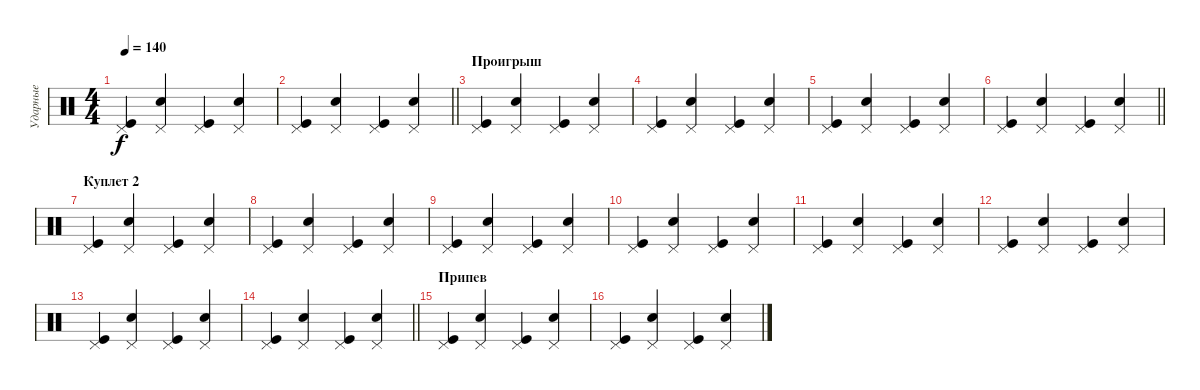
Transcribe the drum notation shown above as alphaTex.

\track ("Ударные" "Ударные") {instrument percussion}
\staff {score}
\articulation defaults
\ts (4 4)
\tempo 140
\clef neutral
\ks c
("Kick (hit)" "Pedal Hi-Hat (hit)").4{dy f} ("Electric Snare (hit)" "Pedal Hi-Hat (hit)").4 ("Kick (hit)" "Pedal Hi-Hat (hit)").4 ("Electric Snare (hit)" "Pedal Hi-Hat (hit)").4 |
\barLineRight lightlight
("Kick (hit)" "Pedal Hi-Hat (hit)").4 ("Electric Snare (hit)" "Pedal Hi-Hat (hit)").4 ("Kick (hit)" "Pedal Hi-Hat (hit)").4 ("Electric Snare (hit)" "Pedal Hi-Hat (hit)").4 |
\section ("" "Проигрыш")
("Kick (hit)" "Pedal Hi-Hat (hit)").4 ("Electric Snare (hit)" "Pedal Hi-Hat (hit)").4 ("Kick (hit)" "Pedal Hi-Hat (hit)").4 ("Electric Snare (hit)" "Pedal Hi-Hat (hit)").4 |
("Kick (hit)" "Pedal Hi-Hat (hit)").4 ("Electric Snare (hit)" "Pedal Hi-Hat (hit)").4 ("Kick (hit)" "Pedal Hi-Hat (hit)").4 ("Electric Snare (hit)" "Pedal Hi-Hat (hit)").4 |
("Kick (hit)" "Pedal Hi-Hat (hit)").4 ("Electric Snare (hit)" "Pedal Hi-Hat (hit)").4 ("Kick (hit)" "Pedal Hi-Hat (hit)").4 ("Electric Snare (hit)" "Pedal Hi-Hat (hit)").4 |
\barLineRight lightlight
("Kick (hit)" "Pedal Hi-Hat (hit)").4 ("Electric Snare (hit)" "Pedal Hi-Hat (hit)").4 ("Kick (hit)" "Pedal Hi-Hat (hit)").4 ("Electric Snare (hit)" "Pedal Hi-Hat (hit)").4 |
\section ("" "Куплет 2")
("Kick (hit)" "Pedal Hi-Hat (hit)").4 ("Electric Snare (hit)" "Pedal Hi-Hat (hit)").4 ("Kick (hit)" "Pedal Hi-Hat (hit)").4 ("Electric Snare (hit)" "Pedal Hi-Hat (hit)").4 |
("Kick (hit)" "Pedal Hi-Hat (hit)").4 ("Electric Snare (hit)" "Pedal Hi-Hat (hit)").4 ("Kick (hit)" "Pedal Hi-Hat (hit)").4 ("Electric Snare (hit)" "Pedal Hi-Hat (hit)").4 |
("Kick (hit)" "Pedal Hi-Hat (hit)").4 ("Electric Snare (hit)" "Pedal Hi-Hat (hit)").4 ("Kick (hit)" "Pedal Hi-Hat (hit)").4 ("Electric Snare (hit)" "Pedal Hi-Hat (hit)").4 |
("Kick (hit)" "Pedal Hi-Hat (hit)").4 ("Electric Snare (hit)" "Pedal Hi-Hat (hit)").4 ("Kick (hit)" "Pedal Hi-Hat (hit)").4 ("Electric Snare (hit)" "Pedal Hi-Hat (hit)").4 |
("Kick (hit)" "Pedal Hi-Hat (hit)").4 ("Electric Snare (hit)" "Pedal Hi-Hat (hit)").4 ("Kick (hit)" "Pedal Hi-Hat (hit)").4 ("Electric Snare (hit)" "Pedal Hi-Hat (hit)").4 |
("Kick (hit)" "Pedal Hi-Hat (hit)").4 ("Electric Snare (hit)" "Pedal Hi-Hat (hit)").4 ("Kick (hit)" "Pedal Hi-Hat (hit)").4 ("Electric Snare (hit)" "Pedal Hi-Hat (hit)").4 |
("Kick (hit)" "Pedal Hi-Hat (hit)").4 ("Electric Snare (hit)" "Pedal Hi-Hat (hit)").4 ("Kick (hit)" "Pedal Hi-Hat (hit)").4 ("Electric Snare (hit)" "Pedal Hi-Hat (hit)").4 |
\barLineRight lightlight
("Kick (hit)" "Pedal Hi-Hat (hit)").4 ("Electric Snare (hit)" "Pedal Hi-Hat (hit)").4 ("Kick (hit)" "Pedal Hi-Hat (hit)").4 ("Electric Snare (hit)" "Pedal Hi-Hat (hit)").4 |
\section ("" "Припев")
("Kick (hit)" "Pedal Hi-Hat (hit)").4 ("Electric Snare (hit)" "Pedal Hi-Hat (hit)").4 ("Kick (hit)" "Pedal Hi-Hat (hit)").4 ("Electric Snare (hit)" "Pedal Hi-Hat (hit)").4 |
("Kick (hit)" "Pedal Hi-Hat (hit)").4 ("Electric Snare (hit)" "Pedal Hi-Hat (hit)").4 ("Kick (hit)" "Pedal Hi-Hat (hit)").4 ("Electric Snare (hit)" "Pedal Hi-Hat (hit)").4
